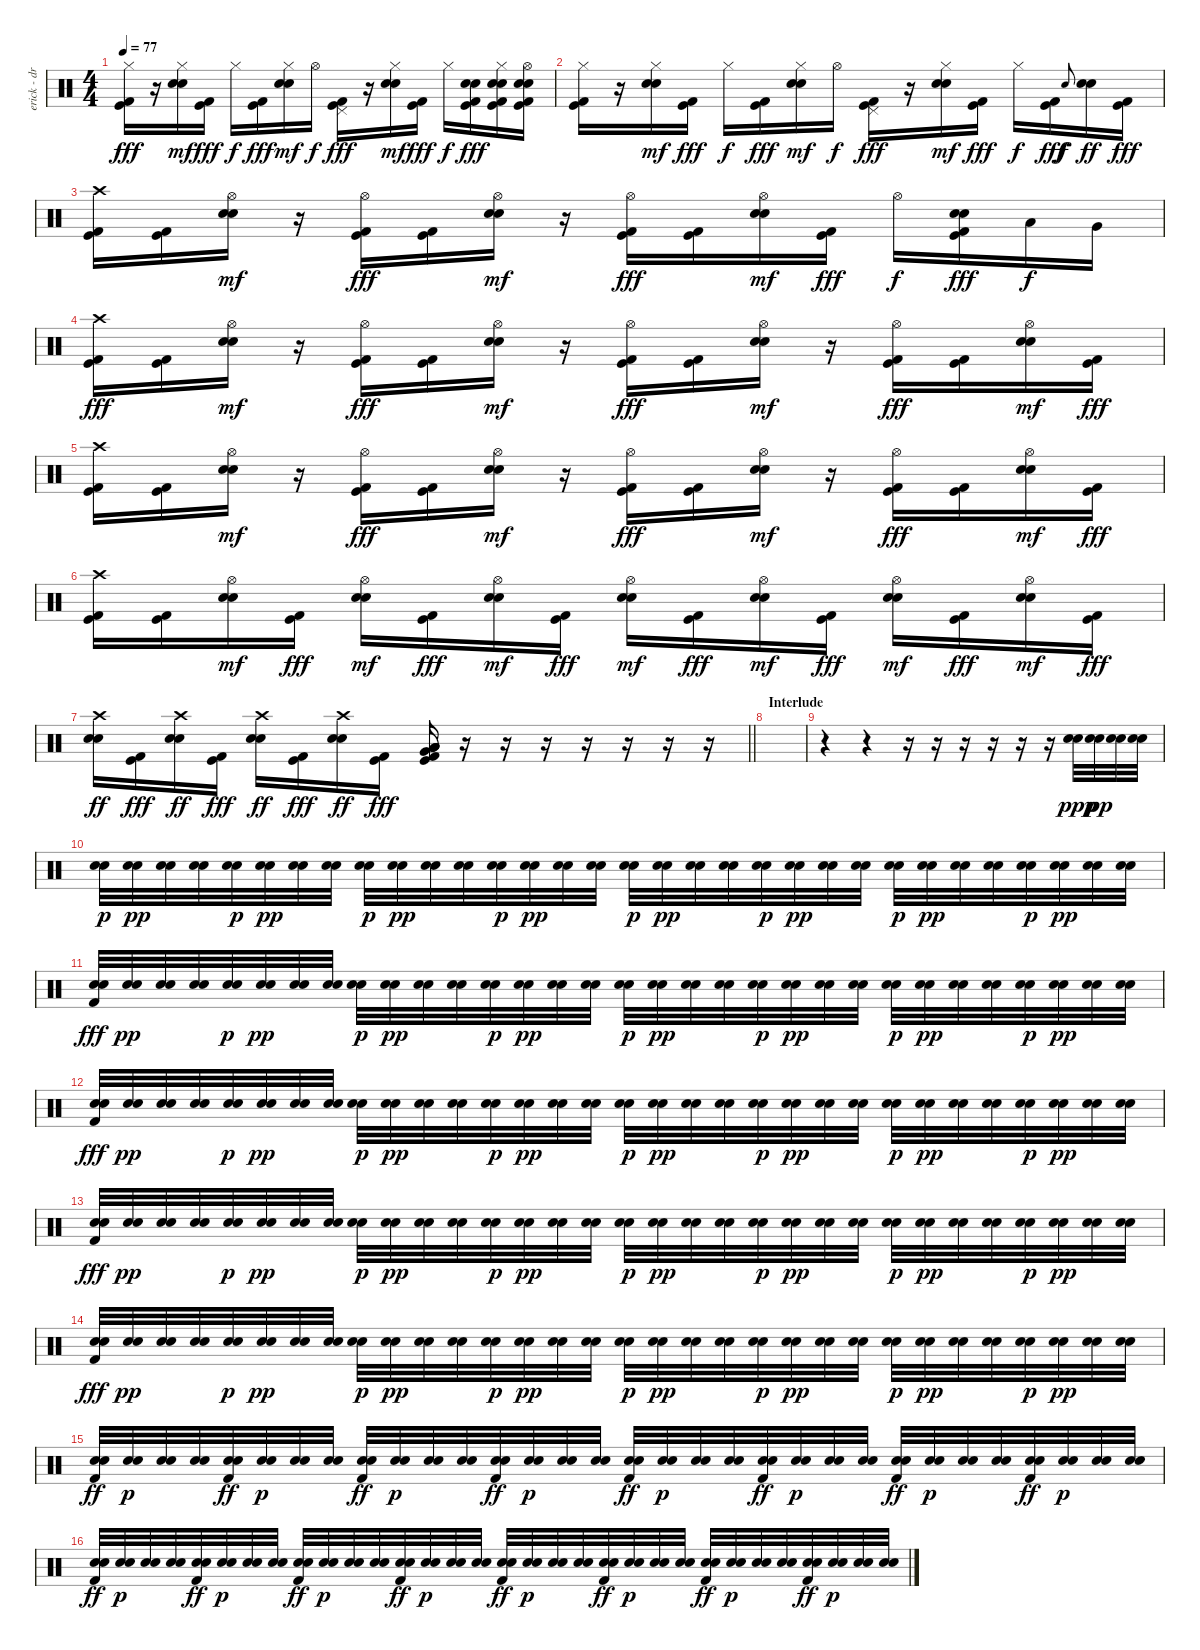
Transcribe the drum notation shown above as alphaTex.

\track ("erick - drum" "erick - dr") {instrument percussion}
\staff {score}
\articulation defaults
\ts (4 4)
\tempo 77
\clef neutral
\ks c
("Hi-Hat (closed)" "Kick (hit) 2" "Kick (hit)").16{dy fff} r.16 ("Hi-Hat (closed)" "Snare (hit) 2" "Electric Snare (hit)").16{dy mf} ("Kick (hit) 2" "Kick (hit)").16{dy fff} "Hi-Hat (closed)".16{dy f} ("Kick (hit) 2" "Kick (hit)").16{dy fff} ("Hi-Hat (closed)" "Snare (hit) 2" "Electric Snare (hit)").16{dy mf} "Hi-Hat (open)".16{dy f} ("Pedal Hi-Hat (hit)" "Kick (hit) 2" "Kick (hit)").16{dy fff} r.16 ("Hi-Hat (closed)" "Snare (hit) 2" "Electric Snare (hit)").16{dy mf} ("Kick (hit) 2" "Kick (hit)").16{dy fff} "Hi-Hat (closed)".16{dy f} ("Snare (hit) 2" "Electric Snare (hit)" "Kick (hit) 2" "Kick (hit)").16{dy fff} ("Hi-Hat (closed)" "Snare (hit) 2" "Electric Snare (hit)" "Kick (hit) 2" "Kick (hit)").16 ("Hi-Hat (open)" "Snare (hit) 2" "Electric Snare (hit)" "Kick (hit) 2" "Kick (hit)").16 |
("Hi-Hat (closed)" "Kick (hit) 2" "Kick (hit)").16 r.16 ("Hi-Hat (closed)" "Snare (hit) 2" "Electric Snare (hit)").16{dy mf} ("Kick (hit) 2" "Kick (hit)").16{dy fff} "Hi-Hat (closed)".16{dy f} ("Kick (hit) 2" "Kick (hit)").16{dy fff} ("Hi-Hat (closed)" "Snare (hit) 2" "Electric Snare (hit)").16{dy mf} "Hi-Hat (open)".16{dy f} ("Pedal Hi-Hat (hit)" "Kick (hit) 2" "Kick (hit)").16{dy fff} r.16 ("Hi-Hat (closed)" "Snare (hit) 2" "Electric Snare (hit)").16{dy mf} ("Kick (hit) 2" "Kick (hit)").16{dy fff} "Hi-Hat (closed)".16{dy f} ("Kick (hit) 2" "Kick (hit)").16{dy fff} "Electric Snare (hit)"{h}.8{gr onbeat dy f} ("Snare (hit) 2" "Electric Snare (hit)").16{dy ff} ("Kick (hit) 2" "Kick (hit)").16{dy fff} |
("Crash high (hit)" "Kick (hit) 2" "Kick (hit)").16 ("Kick (hit) 2" "Kick (hit)").16 ("Hi-Hat (open)" "Snare (hit) 2" "Electric Snare (hit)").16{dy mf} r.16 ("Hi-Hat (open)" "Kick (hit) 2" "Kick (hit)").16{dy fff} ("Kick (hit) 2" "Kick (hit)").16 ("Hi-Hat (open)" "Snare (hit) 2" "Electric Snare (hit)").16{dy mf} r.16 ("Hi-Hat (open)" "Kick (hit) 2" "Kick (hit)").16{dy fff} ("Kick (hit) 2" "Kick (hit)").16 ("Hi-Hat (open)" "Snare (hit) 2" "Electric Snare (hit)").16{dy mf} ("Kick (hit) 2" "Kick (hit)").16{dy fff} "Hi-Hat (open)".16{dy f} ("Snare (hit) 2" "Electric Snare (hit)" "Kick (hit) 2" "Kick (hit)").16{dy fff} "Low Tom (hit)".16{dy f} "Very Low Tom (hit)".16 |
("Crash high (hit)" "Kick (hit) 2" "Kick (hit)").16{dy fff} ("Kick (hit) 2" "Kick (hit)").16 ("Hi-Hat (open)" "Snare (hit) 2" "Electric Snare (hit)").16{dy mf} r.16 ("Hi-Hat (open)" "Kick (hit) 2" "Kick (hit)").16{dy fff} ("Kick (hit) 2" "Kick (hit)").16 ("Hi-Hat (open)" "Snare (hit) 2" "Electric Snare (hit)").16{dy mf} r.16 ("Hi-Hat (open)" "Kick (hit) 2" "Kick (hit)").16{dy fff} ("Kick (hit) 2" "Kick (hit)").16 ("Hi-Hat (open)" "Snare (hit) 2" "Electric Snare (hit)").16{dy mf} r.16 ("Hi-Hat (open)" "Kick (hit) 2" "Kick (hit)").16{dy fff} ("Kick (hit) 2" "Kick (hit)").16 ("Hi-Hat (open)" "Snare (hit) 2" "Electric Snare (hit)").16{dy mf} ("Kick (hit) 2" "Kick (hit)").16{dy fff} |
("Crash high (hit)" "Kick (hit) 2" "Kick (hit)").16 ("Kick (hit) 2" "Kick (hit)").16 ("Hi-Hat (open)" "Snare (hit) 2" "Electric Snare (hit)").16{dy mf} r.16 ("Hi-Hat (open)" "Kick (hit) 2" "Kick (hit)").16{dy fff} ("Kick (hit) 2" "Kick (hit)").16 ("Hi-Hat (open)" "Snare (hit) 2" "Electric Snare (hit)").16{dy mf} r.16 ("Hi-Hat (open)" "Kick (hit) 2" "Kick (hit)").16{dy fff} ("Kick (hit) 2" "Kick (hit)").16 ("Hi-Hat (open)" "Snare (hit) 2" "Electric Snare (hit)").16{dy mf} r.16 ("Hi-Hat (open)" "Kick (hit) 2" "Kick (hit)").16{dy fff} ("Kick (hit) 2" "Kick (hit)").16 ("Hi-Hat (open)" "Snare (hit) 2" "Electric Snare (hit)").16{dy mf} ("Kick (hit) 2" "Kick (hit)").16{dy fff} |
("Crash high (hit)" "Kick (hit) 2" "Kick (hit)").16 ("Kick (hit) 2" "Kick (hit)").16 ("Hi-Hat (open)" "Snare (hit) 2" "Electric Snare (hit)").16{dy mf} ("Kick (hit) 2" "Kick (hit)").16{dy fff} ("Hi-Hat (open)" "Snare (hit) 2" "Electric Snare (hit)").16{dy mf} ("Kick (hit) 2" "Kick (hit)").16{dy fff} ("Hi-Hat (open)" "Snare (hit) 2" "Electric Snare (hit)").16{dy mf} ("Kick (hit) 2" "Kick (hit)").16{dy fff} ("Hi-Hat (open)" "Snare (hit) 2" "Electric Snare (hit)").16{dy mf} ("Kick (hit) 2" "Kick (hit)").16{dy fff} ("Hi-Hat (open)" "Snare (hit) 2" "Electric Snare (hit)").16{dy mf} ("Kick (hit) 2" "Kick (hit)").16{dy fff} ("Hi-Hat (open)" "Snare (hit) 2" "Electric Snare (hit)").16{dy mf} ("Kick (hit) 2" "Kick (hit)").16{dy fff} ("Hi-Hat (open)" "Snare (hit) 2" "Electric Snare (hit)").16{dy mf} ("Kick (hit) 2" "Kick (hit)").16{dy fff} |
\barLineRight lightlight
("Crash high (hit)" "Snare (hit) 2" "Electric Snare (hit)").16{dy ff} ("Kick (hit) 2" "Kick (hit)").16{dy fff} ("Crash high (hit)" "Snare (hit) 2" "Electric Snare (hit)").16{dy ff} ("Kick (hit) 2" "Kick (hit)").16{dy fff} ("Crash high (hit)" "Snare (hit) 2" "Electric Snare (hit)").16{dy ff} ("Kick (hit) 2" "Kick (hit)").16{dy fff} ("Crash high (hit)" "Snare (hit) 2" "Electric Snare (hit)").16{dy ff} ("Kick (hit) 2" "Kick (hit)").16{dy fff} ("Very Low Tom (hit)" "Low Floor Tom (hit)" "Low Floor Tom (hit)" "Low Floor Tom (hit)" "Kick (hit) 2" "Kick (hit)").16 r.16 r.16 r.16 r.16 r.16 r.16 r.16 |
\section ("" "Interlude")
|
r.4 r.4 r.16 r.16 r.16 r.16 r.16 r.16 ("Snare (hit) 2" "Electric Snare (hit)").32{dy ppp} ("Snare (hit) 2" "Electric Snare (hit)").32{dy pp} ("Snare (hit) 2" "Electric Snare (hit)").32 ("Snare (hit) 2" "Electric Snare (hit)").32 |
("Snare (hit) 2" "Electric Snare (hit)").32{dy p} ("Snare (hit) 2" "Electric Snare (hit)").32{dy pp} ("Snare (hit) 2" "Electric Snare (hit)").32 ("Snare (hit) 2" "Electric Snare (hit)").32 ("Snare (hit) 2" "Electric Snare (hit)").32{dy p} ("Snare (hit) 2" "Electric Snare (hit)").32{dy pp} ("Snare (hit) 2" "Electric Snare (hit)").32 ("Snare (hit) 2" "Electric Snare (hit)").32 ("Snare (hit) 2" "Electric Snare (hit)").32{dy p} ("Snare (hit) 2" "Electric Snare (hit)").32{dy pp} ("Snare (hit) 2" "Electric Snare (hit)").32 ("Snare (hit) 2" "Electric Snare (hit)").32 ("Snare (hit) 2" "Electric Snare (hit)").32{dy p} ("Snare (hit) 2" "Electric Snare (hit)").32{dy pp} ("Snare (hit) 2" "Electric Snare (hit)").32 ("Snare (hit) 2" "Electric Snare (hit)").32 ("Snare (hit) 2" "Electric Snare (hit)").32{dy p} ("Snare (hit) 2" "Electric Snare (hit)").32{dy pp} ("Snare (hit) 2" "Electric Snare (hit)").32 ("Snare (hit) 2" "Electric Snare (hit)").32 ("Snare (hit) 2" "Electric Snare (hit)").32{dy p} ("Snare (hit) 2" "Electric Snare (hit)").32{dy pp} ("Snare (hit) 2" "Electric Snare (hit)").32 ("Snare (hit) 2" "Electric Snare (hit)").32 ("Snare (hit) 2" "Electric Snare (hit)").32{dy p} ("Snare (hit) 2" "Electric Snare (hit)").32{dy pp} ("Snare (hit) 2" "Electric Snare (hit)").32 ("Snare (hit) 2" "Electric Snare (hit)").32 ("Snare (hit) 2" "Electric Snare (hit)").32{dy p} ("Snare (hit) 2" "Electric Snare (hit)").32{dy pp} ("Snare (hit) 2" "Electric Snare (hit)").32 ("Snare (hit) 2" "Electric Snare (hit)").32 |
("Snare (hit) 2" "Electric Snare (hit)" "Kick (hit) 2").32{dy fff} ("Snare (hit) 2" "Electric Snare (hit)").32{dy pp} ("Snare (hit) 2" "Electric Snare (hit)").32 ("Snare (hit) 2" "Electric Snare (hit)").32 ("Snare (hit) 2" "Electric Snare (hit)").32{dy p} ("Snare (hit) 2" "Electric Snare (hit)").32{dy pp} ("Snare (hit) 2" "Electric Snare (hit)").32 ("Snare (hit) 2" "Electric Snare (hit)").32 ("Snare (hit) 2" "Electric Snare (hit)").32{dy p} ("Snare (hit) 2" "Electric Snare (hit)").32{dy pp} ("Snare (hit) 2" "Electric Snare (hit)").32 ("Snare (hit) 2" "Electric Snare (hit)").32 ("Snare (hit) 2" "Electric Snare (hit)").32{dy p} ("Snare (hit) 2" "Electric Snare (hit)").32{dy pp} ("Snare (hit) 2" "Electric Snare (hit)").32 ("Snare (hit) 2" "Electric Snare (hit)").32 ("Snare (hit) 2" "Electric Snare (hit)").32{dy p} ("Snare (hit) 2" "Electric Snare (hit)").32{dy pp} ("Snare (hit) 2" "Electric Snare (hit)").32 ("Snare (hit) 2" "Electric Snare (hit)").32 ("Snare (hit) 2" "Electric Snare (hit)").32{dy p} ("Snare (hit) 2" "Electric Snare (hit)").32{dy pp} ("Snare (hit) 2" "Electric Snare (hit)").32 ("Snare (hit) 2" "Electric Snare (hit)").32 ("Snare (hit) 2" "Electric Snare (hit)").32{dy p} ("Snare (hit) 2" "Electric Snare (hit)").32{dy pp} ("Snare (hit) 2" "Electric Snare (hit)").32 ("Snare (hit) 2" "Electric Snare (hit)").32 ("Snare (hit) 2" "Electric Snare (hit)").32{dy p} ("Snare (hit) 2" "Electric Snare (hit)").32{dy pp} ("Snare (hit) 2" "Electric Snare (hit)").32 ("Snare (hit) 2" "Electric Snare (hit)").32 |
("Snare (hit) 2" "Electric Snare (hit)" "Kick (hit) 2").32{dy fff} ("Snare (hit) 2" "Electric Snare (hit)").32{dy pp} ("Snare (hit) 2" "Electric Snare (hit)").32 ("Snare (hit) 2" "Electric Snare (hit)").32 ("Snare (hit) 2" "Electric Snare (hit)").32{dy p} ("Snare (hit) 2" "Electric Snare (hit)").32{dy pp} ("Snare (hit) 2" "Electric Snare (hit)").32 ("Snare (hit) 2" "Electric Snare (hit)").32 ("Snare (hit) 2" "Electric Snare (hit)").32{dy p} ("Snare (hit) 2" "Electric Snare (hit)").32{dy pp} ("Snare (hit) 2" "Electric Snare (hit)").32 ("Snare (hit) 2" "Electric Snare (hit)").32 ("Snare (hit) 2" "Electric Snare (hit)").32{dy p} ("Snare (hit) 2" "Electric Snare (hit)").32{dy pp} ("Snare (hit) 2" "Electric Snare (hit)").32 ("Snare (hit) 2" "Electric Snare (hit)").32 ("Snare (hit) 2" "Electric Snare (hit)").32{dy p} ("Snare (hit) 2" "Electric Snare (hit)").32{dy pp} ("Snare (hit) 2" "Electric Snare (hit)").32 ("Snare (hit) 2" "Electric Snare (hit)").32 ("Snare (hit) 2" "Electric Snare (hit)").32{dy p} ("Snare (hit) 2" "Electric Snare (hit)").32{dy pp} ("Snare (hit) 2" "Electric Snare (hit)").32 ("Snare (hit) 2" "Electric Snare (hit)").32 ("Snare (hit) 2" "Electric Snare (hit)").32{dy p} ("Snare (hit) 2" "Electric Snare (hit)").32{dy pp} ("Snare (hit) 2" "Electric Snare (hit)").32 ("Snare (hit) 2" "Electric Snare (hit)").32 ("Snare (hit) 2" "Electric Snare (hit)").32{dy p} ("Snare (hit) 2" "Electric Snare (hit)").32{dy pp} ("Snare (hit) 2" "Electric Snare (hit)").32 ("Snare (hit) 2" "Electric Snare (hit)").32 |
("Snare (hit) 2" "Electric Snare (hit)" "Kick (hit) 2").32{dy fff} ("Snare (hit) 2" "Electric Snare (hit)").32{dy pp} ("Snare (hit) 2" "Electric Snare (hit)").32 ("Snare (hit) 2" "Electric Snare (hit)").32 ("Snare (hit) 2" "Electric Snare (hit)").32{dy p} ("Snare (hit) 2" "Electric Snare (hit)").32{dy pp} ("Snare (hit) 2" "Electric Snare (hit)").32 ("Snare (hit) 2" "Electric Snare (hit)").32 ("Snare (hit) 2" "Electric Snare (hit)").32{dy p} ("Snare (hit) 2" "Electric Snare (hit)").32{dy pp} ("Snare (hit) 2" "Electric Snare (hit)").32 ("Snare (hit) 2" "Electric Snare (hit)").32 ("Snare (hit) 2" "Electric Snare (hit)").32{dy p} ("Snare (hit) 2" "Electric Snare (hit)").32{dy pp} ("Snare (hit) 2" "Electric Snare (hit)").32 ("Snare (hit) 2" "Electric Snare (hit)").32 ("Snare (hit) 2" "Electric Snare (hit)").32{dy p} ("Snare (hit) 2" "Electric Snare (hit)").32{dy pp} ("Snare (hit) 2" "Electric Snare (hit)").32 ("Snare (hit) 2" "Electric Snare (hit)").32 ("Snare (hit) 2" "Electric Snare (hit)").32{dy p} ("Snare (hit) 2" "Electric Snare (hit)").32{dy pp} ("Snare (hit) 2" "Electric Snare (hit)").32 ("Snare (hit) 2" "Electric Snare (hit)").32 ("Snare (hit) 2" "Electric Snare (hit)").32{dy p} ("Snare (hit) 2" "Electric Snare (hit)").32{dy pp} ("Snare (hit) 2" "Electric Snare (hit)").32 ("Snare (hit) 2" "Electric Snare (hit)").32 ("Snare (hit) 2" "Electric Snare (hit)").32{dy p} ("Snare (hit) 2" "Electric Snare (hit)").32{dy pp} ("Snare (hit) 2" "Electric Snare (hit)").32 ("Snare (hit) 2" "Electric Snare (hit)").32 |
("Snare (hit) 2" "Electric Snare (hit)" "Kick (hit) 2").32{dy fff} ("Snare (hit) 2" "Electric Snare (hit)").32{dy pp} ("Snare (hit) 2" "Electric Snare (hit)").32 ("Snare (hit) 2" "Electric Snare (hit)").32 ("Snare (hit) 2" "Electric Snare (hit)").32{dy p} ("Snare (hit) 2" "Electric Snare (hit)").32{dy pp} ("Snare (hit) 2" "Electric Snare (hit)").32 ("Snare (hit) 2" "Electric Snare (hit)").32 ("Snare (hit) 2" "Electric Snare (hit)").32{dy p} ("Snare (hit) 2" "Electric Snare (hit)").32{dy pp} ("Snare (hit) 2" "Electric Snare (hit)").32 ("Snare (hit) 2" "Electric Snare (hit)").32 ("Snare (hit) 2" "Electric Snare (hit)").32{dy p} ("Snare (hit) 2" "Electric Snare (hit)").32{dy pp} ("Snare (hit) 2" "Electric Snare (hit)").32 ("Snare (hit) 2" "Electric Snare (hit)").32 ("Snare (hit) 2" "Electric Snare (hit)").32{dy p} ("Snare (hit) 2" "Electric Snare (hit)").32{dy pp} ("Snare (hit) 2" "Electric Snare (hit)").32 ("Snare (hit) 2" "Electric Snare (hit)").32 ("Snare (hit) 2" "Electric Snare (hit)").32{dy p} ("Snare (hit) 2" "Electric Snare (hit)").32{dy pp} ("Snare (hit) 2" "Electric Snare (hit)").32 ("Snare (hit) 2" "Electric Snare (hit)").32 ("Snare (hit) 2" "Electric Snare (hit)").32{dy p} ("Snare (hit) 2" "Electric Snare (hit)").32{dy pp} ("Snare (hit) 2" "Electric Snare (hit)").32 ("Snare (hit) 2" "Electric Snare (hit)").32 ("Snare (hit) 2" "Electric Snare (hit)").32{dy p} ("Snare (hit) 2" "Electric Snare (hit)").32{dy pp} ("Snare (hit) 2" "Electric Snare (hit)").32 ("Snare (hit) 2" "Electric Snare (hit)").32 |
("Snare (hit) 2" "Electric Snare (hit)" "Kick (hit) 2").32{dy ff} ("Snare (hit) 2" "Electric Snare (hit)").32{dy p} ("Snare (hit) 2" "Electric Snare (hit)").32 ("Snare (hit) 2" "Electric Snare (hit)").32 ("Snare (hit) 2" "Electric Snare (hit)" "Kick (hit) 2").32{dy ff} ("Snare (hit) 2" "Electric Snare (hit)").32{dy p} ("Snare (hit) 2" "Electric Snare (hit)").32 ("Snare (hit) 2" "Electric Snare (hit)").32 ("Snare (hit) 2" "Electric Snare (hit)" "Kick (hit) 2").32{dy ff} ("Snare (hit) 2" "Electric Snare (hit)").32{dy p} ("Snare (hit) 2" "Electric Snare (hit)").32 ("Snare (hit) 2" "Electric Snare (hit)").32 ("Snare (hit) 2" "Electric Snare (hit)" "Kick (hit) 2").32{dy ff} ("Snare (hit) 2" "Electric Snare (hit)").32{dy p} ("Snare (hit) 2" "Electric Snare (hit)").32 ("Snare (hit) 2" "Electric Snare (hit)").32 ("Snare (hit) 2" "Electric Snare (hit)" "Kick (hit) 2").32{dy ff} ("Snare (hit) 2" "Electric Snare (hit)").32{dy p} ("Snare (hit) 2" "Electric Snare (hit)").32 ("Snare (hit) 2" "Electric Snare (hit)").32 ("Snare (hit) 2" "Electric Snare (hit)" "Kick (hit) 2").32{dy ff} ("Snare (hit) 2" "Electric Snare (hit)").32{dy p} ("Snare (hit) 2" "Electric Snare (hit)").32 ("Snare (hit) 2" "Electric Snare (hit)").32 ("Snare (hit) 2" "Electric Snare (hit)" "Kick (hit) 2").32{dy ff} ("Snare (hit) 2" "Electric Snare (hit)").32{dy p} ("Snare (hit) 2" "Electric Snare (hit)").32 ("Snare (hit) 2" "Electric Snare (hit)").32 ("Snare (hit) 2" "Electric Snare (hit)" "Kick (hit) 2").32{dy ff} ("Snare (hit) 2" "Electric Snare (hit)").32{dy p} ("Snare (hit) 2" "Electric Snare (hit)").32 ("Snare (hit) 2" "Electric Snare (hit)").32 |
("Snare (hit) 2" "Electric Snare (hit)" "Kick (hit) 2").32{dy ff} ("Snare (hit) 2" "Electric Snare (hit)").32{dy p} ("Snare (hit) 2" "Electric Snare (hit)").32 ("Snare (hit) 2" "Electric Snare (hit)").32 ("Snare (hit) 2" "Electric Snare (hit)" "Kick (hit) 2").32{dy ff} ("Snare (hit) 2" "Electric Snare (hit)").32{dy p} ("Snare (hit) 2" "Electric Snare (hit)").32 ("Snare (hit) 2" "Electric Snare (hit)").32 ("Snare (hit) 2" "Electric Snare (hit)" "Kick (hit) 2").32{dy ff} ("Snare (hit) 2" "Electric Snare (hit)").32{dy p} ("Snare (hit) 2" "Electric Snare (hit)").32 ("Snare (hit) 2" "Electric Snare (hit)").32 ("Snare (hit) 2" "Electric Snare (hit)" "Kick (hit) 2").32{dy ff} ("Snare (hit) 2" "Electric Snare (hit)").32{dy p} ("Snare (hit) 2" "Electric Snare (hit)").32 ("Snare (hit) 2" "Electric Snare (hit)").32 ("Snare (hit) 2" "Electric Snare (hit)" "Kick (hit) 2").32{dy ff} ("Snare (hit) 2" "Electric Snare (hit)").32{dy p} ("Snare (hit) 2" "Electric Snare (hit)").32 ("Snare (hit) 2" "Electric Snare (hit)").32 ("Snare (hit) 2" "Electric Snare (hit)" "Kick (hit) 2").32{dy ff} ("Snare (hit) 2" "Electric Snare (hit)").32{dy p} ("Snare (hit) 2" "Electric Snare (hit)").32 ("Snare (hit) 2" "Electric Snare (hit)").32 ("Snare (hit) 2" "Electric Snare (hit)" "Kick (hit) 2").32{dy ff} ("Snare (hit) 2" "Electric Snare (hit)").32{dy p} ("Snare (hit) 2" "Electric Snare (hit)").32 ("Snare (hit) 2" "Electric Snare (hit)").32 ("Snare (hit) 2" "Electric Snare (hit)" "Kick (hit) 2").32{dy ff} ("Snare (hit) 2" "Electric Snare (hit)").32{dy p} ("Snare (hit) 2" "Electric Snare (hit)").32 ("Snare (hit) 2" "Electric Snare (hit)").32
